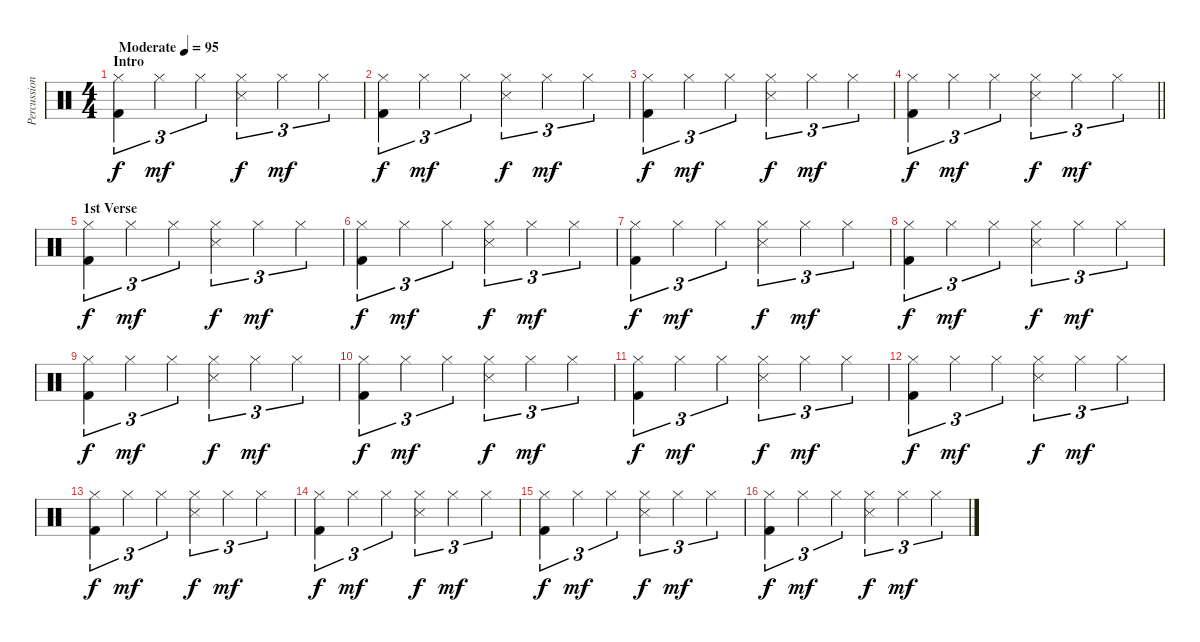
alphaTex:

\track ("Percussion" "Percussion") {instrument percussion}
\staff {score}
\articulation defaults
\ts (4 4)
\section ("" "Intro")
\tempo (95 "Moderate")
\clef neutral
\ks c
("Hi-Hat (closed)" "Kick (hit) 2").4{tu (3 2) dy f} "Hi-Hat (closed)".4{tu (3 2) dy mf} "Hi-Hat (closed)".4{tu (3 2)} ("Hi-Hat (closed)" "Snare (side stick) 3").4{tu (3 2) dy f} "Hi-Hat (closed)".4{tu (3 2) dy mf} "Hi-Hat (closed)".4{tu (3 2)} |
("Hi-Hat (closed)" "Kick (hit) 2").4{tu (3 2) dy f} "Hi-Hat (closed)".4{tu (3 2) dy mf} "Hi-Hat (closed)".4{tu (3 2)} ("Hi-Hat (closed)" "Snare (side stick) 3").4{tu (3 2) dy f} "Hi-Hat (closed)".4{tu (3 2) dy mf} "Hi-Hat (closed)".4{tu (3 2)} |
("Hi-Hat (closed)" "Kick (hit) 2").4{tu (3 2) dy f} "Hi-Hat (closed)".4{tu (3 2) dy mf} "Hi-Hat (closed)".4{tu (3 2)} ("Hi-Hat (closed)" "Snare (side stick) 3").4{tu (3 2) dy f} "Hi-Hat (closed)".4{tu (3 2) dy mf} "Hi-Hat (closed)".4{tu (3 2)} |
\barLineRight lightlight
("Hi-Hat (closed)" "Kick (hit) 2").4{tu (3 2) dy f} "Hi-Hat (closed)".4{tu (3 2) dy mf} "Hi-Hat (closed)".4{tu (3 2)} ("Hi-Hat (closed)" "Snare (side stick) 3").4{tu (3 2) dy f} "Hi-Hat (closed)".4{tu (3 2) dy mf} "Hi-Hat (closed)".4{tu (3 2)} |
\section ("" "1st Verse")
("Hi-Hat (closed)" "Kick (hit) 2").4{tu (3 2) dy f} "Hi-Hat (closed)".4{tu (3 2) dy mf} "Hi-Hat (closed)".4{tu (3 2)} ("Hi-Hat (closed)" "Snare (side stick) 3").4{tu (3 2) dy f} "Hi-Hat (closed)".4{tu (3 2) dy mf} "Hi-Hat (closed)".4{tu (3 2)} |
("Hi-Hat (closed)" "Kick (hit) 2").4{tu (3 2) dy f} "Hi-Hat (closed)".4{tu (3 2) dy mf} "Hi-Hat (closed)".4{tu (3 2)} ("Hi-Hat (closed)" "Snare (side stick) 3").4{tu (3 2) dy f} "Hi-Hat (closed)".4{tu (3 2) dy mf} "Hi-Hat (closed)".4{tu (3 2)} |
("Hi-Hat (closed)" "Kick (hit) 2").4{tu (3 2) dy f} "Hi-Hat (closed)".4{tu (3 2) dy mf} "Hi-Hat (closed)".4{tu (3 2)} ("Hi-Hat (closed)" "Snare (side stick) 3").4{tu (3 2) dy f} "Hi-Hat (closed)".4{tu (3 2) dy mf} "Hi-Hat (closed)".4{tu (3 2)} |
("Hi-Hat (closed)" "Kick (hit) 2").4{tu (3 2) dy f} "Hi-Hat (closed)".4{tu (3 2) dy mf} "Hi-Hat (closed)".4{tu (3 2)} ("Hi-Hat (closed)" "Snare (side stick) 3").4{tu (3 2) dy f} "Hi-Hat (closed)".4{tu (3 2) dy mf} "Hi-Hat (closed)".4{tu (3 2)} |
("Hi-Hat (closed)" "Kick (hit) 2").4{tu (3 2) dy f} "Hi-Hat (closed)".4{tu (3 2) dy mf} "Hi-Hat (closed)".4{tu (3 2)} ("Hi-Hat (closed)" "Snare (side stick) 3").4{tu (3 2) dy f} "Hi-Hat (closed)".4{tu (3 2) dy mf} "Hi-Hat (closed)".4{tu (3 2)} |
("Hi-Hat (closed)" "Kick (hit) 2").4{tu (3 2) dy f} "Hi-Hat (closed)".4{tu (3 2) dy mf} "Hi-Hat (closed)".4{tu (3 2)} ("Hi-Hat (closed)" "Snare (side stick) 3").4{tu (3 2) dy f} "Hi-Hat (closed)".4{tu (3 2) dy mf} "Hi-Hat (closed)".4{tu (3 2)} |
("Hi-Hat (closed)" "Kick (hit) 2").4{tu (3 2) dy f} "Hi-Hat (closed)".4{tu (3 2) dy mf} "Hi-Hat (closed)".4{tu (3 2)} ("Hi-Hat (closed)" "Snare (side stick) 3").4{tu (3 2) dy f} "Hi-Hat (closed)".4{tu (3 2) dy mf} "Hi-Hat (closed)".4{tu (3 2)} |
("Hi-Hat (closed)" "Kick (hit) 2").4{tu (3 2) dy f} "Hi-Hat (closed)".4{tu (3 2) dy mf} "Hi-Hat (closed)".4{tu (3 2)} ("Hi-Hat (closed)" "Snare (side stick) 3").4{tu (3 2) dy f} "Hi-Hat (closed)".4{tu (3 2) dy mf} "Hi-Hat (closed)".4{tu (3 2)} |
("Hi-Hat (closed)" "Kick (hit) 2").4{tu (3 2) dy f} "Hi-Hat (closed)".4{tu (3 2) dy mf} "Hi-Hat (closed)".4{tu (3 2)} ("Hi-Hat (closed)" "Snare (side stick) 3").4{tu (3 2) dy f} "Hi-Hat (closed)".4{tu (3 2) dy mf} "Hi-Hat (closed)".4{tu (3 2)} |
("Hi-Hat (closed)" "Kick (hit) 2").4{tu (3 2) dy f} "Hi-Hat (closed)".4{tu (3 2) dy mf} "Hi-Hat (closed)".4{tu (3 2)} ("Hi-Hat (closed)" "Snare (side stick) 3").4{tu (3 2) dy f} "Hi-Hat (closed)".4{tu (3 2) dy mf} "Hi-Hat (closed)".4{tu (3 2)} |
("Hi-Hat (closed)" "Kick (hit) 2").4{tu (3 2) dy f} "Hi-Hat (closed)".4{tu (3 2) dy mf} "Hi-Hat (closed)".4{tu (3 2)} ("Hi-Hat (closed)" "Snare (side stick) 3").4{tu (3 2) dy f} "Hi-Hat (closed)".4{tu (3 2) dy mf} "Hi-Hat (closed)".4{tu (3 2)} |
("Hi-Hat (closed)" "Kick (hit) 2").4{tu (3 2) dy f} "Hi-Hat (closed)".4{tu (3 2) dy mf} "Hi-Hat (closed)".4{tu (3 2)} ("Hi-Hat (closed)" "Snare (side stick) 3").4{tu (3 2) dy f} "Hi-Hat (closed)".4{tu (3 2) dy mf} "Hi-Hat (closed)".4{tu (3 2)}
